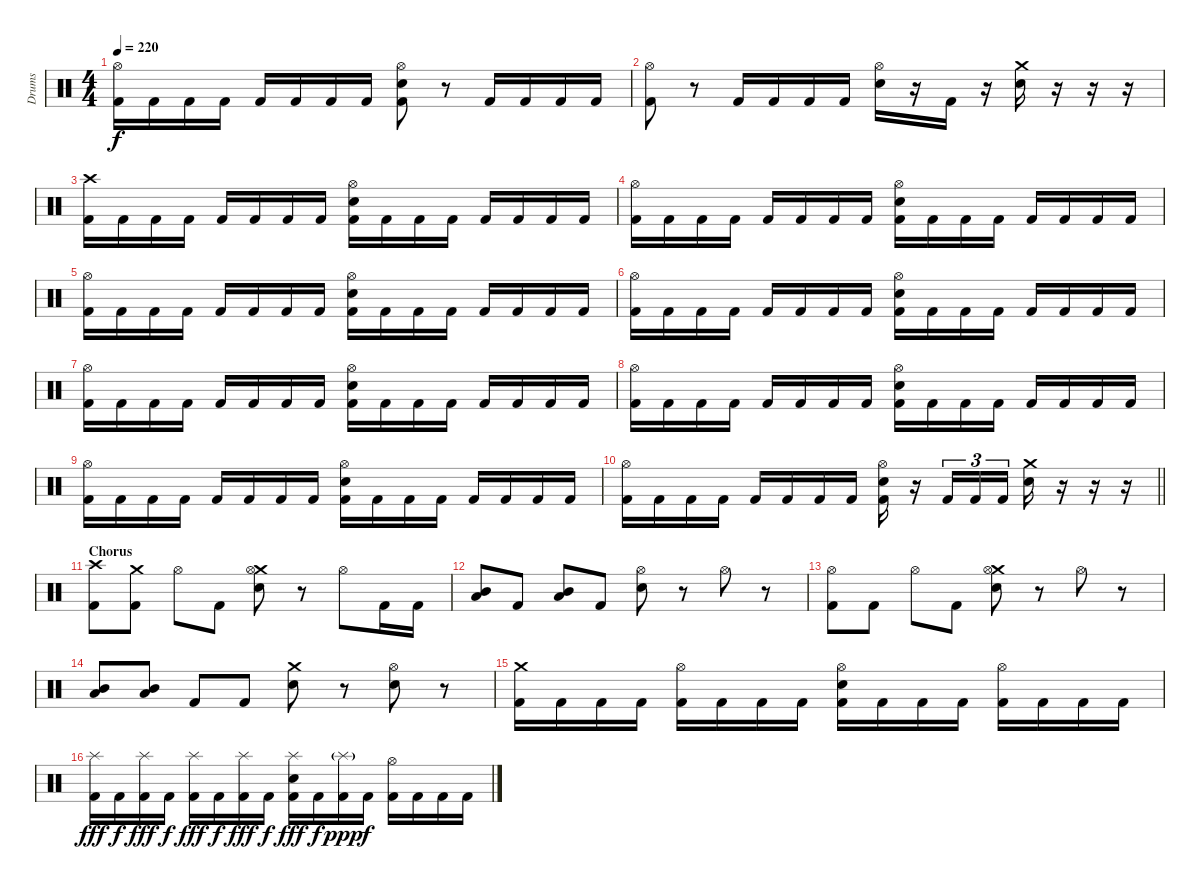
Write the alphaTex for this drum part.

\track ("Drums" "Drums") {instrument percussion}
\staff {score}
\articulation defaults
\ts (4 4)
\tempo 220
\clef neutral
\ks c
("Hi-Hat (open)" "Kick (hit) 2").16{dy f} "Kick (hit) 2".16 "Kick (hit) 2".16 "Kick (hit) 2".16 "Kick (hit) 2".16 "Kick (hit) 2".16 "Kick (hit) 2".16 "Kick (hit) 2".16 ("Hi-Hat (open)" "Electric Snare (hit)" "Kick (hit) 2").8 r.8 "Kick (hit) 2".16 "Kick (hit) 2".16 "Kick (hit) 2".16 "Kick (hit) 2".16 |
("Hi-Hat (open)" "Kick (hit) 2").8 r.8 "Kick (hit) 2".16 "Kick (hit) 2".16 "Kick (hit) 2".16 "Kick (hit) 2".16 ("Hi-Hat (open)" "Electric Snare (hit)").16 r.16 "Kick (hit) 2".16 r.16 ("Crash medium (hit)" "Electric Snare (hit)").16 r.16 r.16 r.16 |
("Crash high (hit)" "Kick (hit) 2").16 "Kick (hit) 2".16 "Kick (hit) 2".16 "Kick (hit) 2".16 "Kick (hit) 2".16 "Kick (hit) 2".16 "Kick (hit) 2".16 "Kick (hit) 2".16 ("Hi-Hat (open)" "Electric Snare (hit)" "Kick (hit) 2").16 "Kick (hit) 2".16 "Kick (hit) 2".16 "Kick (hit) 2".16 "Kick (hit) 2".16 "Kick (hit) 2".16 "Kick (hit) 2".16 "Kick (hit) 2".16 |
("Hi-Hat (open)" "Kick (hit) 2").16 "Kick (hit) 2".16 "Kick (hit) 2".16 "Kick (hit) 2".16 "Kick (hit) 2".16 "Kick (hit) 2".16 "Kick (hit) 2".16 "Kick (hit) 2".16 ("Hi-Hat (open)" "Electric Snare (hit)" "Kick (hit) 2").16 "Kick (hit) 2".16 "Kick (hit) 2".16 "Kick (hit) 2".16 "Kick (hit) 2".16 "Kick (hit) 2".16 "Kick (hit) 2".16 "Kick (hit) 2".16 |
("Hi-Hat (open)" "Kick (hit) 2").16 "Kick (hit) 2".16 "Kick (hit) 2".16 "Kick (hit) 2".16 "Kick (hit) 2".16 "Kick (hit) 2".16 "Kick (hit) 2".16 "Kick (hit) 2".16 ("Hi-Hat (open)" "Electric Snare (hit)" "Kick (hit) 2").16 "Kick (hit) 2".16 "Kick (hit) 2".16 "Kick (hit) 2".16 "Kick (hit) 2".16 "Kick (hit) 2".16 "Kick (hit) 2".16 "Kick (hit) 2".16 |
("Hi-Hat (open)" "Kick (hit) 2").16 "Kick (hit) 2".16 "Kick (hit) 2".16 "Kick (hit) 2".16 "Kick (hit) 2".16 "Kick (hit) 2".16 "Kick (hit) 2".16 "Kick (hit) 2".16 ("Hi-Hat (open)" "Electric Snare (hit)" "Kick (hit) 2").16 "Kick (hit) 2".16 "Kick (hit) 2".16 "Kick (hit) 2".16 "Kick (hit) 2".16 "Kick (hit) 2".16 "Kick (hit) 2".16 "Kick (hit) 2".16 |
("Hi-Hat (open)" "Kick (hit) 2").16 "Kick (hit) 2".16 "Kick (hit) 2".16 "Kick (hit) 2".16 "Kick (hit) 2".16 "Kick (hit) 2".16 "Kick (hit) 2".16 "Kick (hit) 2".16 ("Hi-Hat (open)" "Electric Snare (hit)" "Kick (hit) 2").16 "Kick (hit) 2".16 "Kick (hit) 2".16 "Kick (hit) 2".16 "Kick (hit) 2".16 "Kick (hit) 2".16 "Kick (hit) 2".16 "Kick (hit) 2".16 |
("Hi-Hat (open)" "Kick (hit) 2").16 "Kick (hit) 2".16 "Kick (hit) 2".16 "Kick (hit) 2".16 "Kick (hit) 2".16 "Kick (hit) 2".16 "Kick (hit) 2".16 "Kick (hit) 2".16 ("Hi-Hat (open)" "Electric Snare (hit)" "Kick (hit) 2").16 "Kick (hit) 2".16 "Kick (hit) 2".16 "Kick (hit) 2".16 "Kick (hit) 2".16 "Kick (hit) 2".16 "Kick (hit) 2".16 "Kick (hit) 2".16 |
("Hi-Hat (open)" "Kick (hit) 2").16 "Kick (hit) 2".16 "Kick (hit) 2".16 "Kick (hit) 2".16 "Kick (hit) 2".16 "Kick (hit) 2".16 "Kick (hit) 2".16 "Kick (hit) 2".16 ("Hi-Hat (open)" "Electric Snare (hit)" "Kick (hit) 2").16 "Kick (hit) 2".16 "Kick (hit) 2".16 "Kick (hit) 2".16 "Kick (hit) 2".16 "Kick (hit) 2".16 "Kick (hit) 2".16 "Kick (hit) 2".16 |
\barLineRight lightlight
("Hi-Hat (open)" "Kick (hit) 2").16 "Kick (hit) 2".16 "Kick (hit) 2".16 "Kick (hit) 2".16 "Kick (hit) 2".16 "Kick (hit) 2".16 "Kick (hit) 2".16 "Kick (hit) 2".16 ("Hi-Hat (open)" "Electric Snare (hit)" "Kick (hit) 2").16 r.16 "Kick (hit) 2".16{tu (3 2)} "Kick (hit) 2".16{tu (3 2)} "Kick (hit) 2".16{tu (3 2)} ("Crash medium (hit)" "Electric Snare (hit)").16 r.16 r.16 r.16 |
\section ("" "Chorus")
("Crash high (hit)" "Kick (hit) 2").8 ("Crash medium (hit)" "Kick (hit) 2").8 "Hi-Hat (open)".8 "Kick (hit) 2".8 ("Crash medium (hit)" "Hi-Hat (open)" "Electric Snare (hit)").8 r.8 "Hi-Hat (open)".8 "Kick (hit) 2".16 "Kick (hit) 2".16 |
("Mid Tom (hit)" "Low Tom (hit)").8 "Kick (hit) 2".8 ("Mid Tom (hit)" "Low Tom (hit)").8 "Kick (hit) 2".8 ("Hi-Hat (open)" "Electric Snare (hit)").8 r.8 "Hi-Hat (open)".8 r.8 |
("Hi-Hat (open)" "Kick (hit) 2").8 "Kick (hit) 2".8 "Hi-Hat (open)".8 "Kick (hit) 2".8 ("Crash medium (hit)" "Hi-Hat (open)" "Electric Snare (hit)").8 r.8 "Hi-Hat (open)".8 r.8 |
("Mid Tom (hit)" "Low Tom (hit)").8 ("Mid Tom (hit)" "Low Tom (hit)").8 "Kick (hit) 2".8 "Kick (hit) 2".8 ("Crash medium (hit)" "Electric Snare (hit)").8 r.8 ("Hi-Hat (open)" "Electric Snare (hit)").8 r.8 |
("Crash medium (hit)" "Kick (hit) 2").16 "Kick (hit) 2".16 "Kick (hit) 2".16 "Kick (hit) 2".16 ("Hi-Hat (open)" "Kick (hit) 2").16 "Kick (hit) 2".16 "Kick (hit) 2".16 "Kick (hit) 2".16 ("Hi-Hat (open)" "Electric Snare (hit)" "Kick (hit) 2").16 "Kick (hit) 2".16 "Kick (hit) 2".16 "Kick (hit) 2".16 ("Hi-Hat (open)" "Kick (hit) 2").16 "Kick (hit) 2".16 "Kick (hit) 2".16 "Kick (hit) 2".16 |
("Splash (hit)" "Kick (hit) 2").16{dy fff} "Kick (hit) 2".16{dy f} ("Splash (hit)" "Kick (hit) 2").16{dy fff} "Kick (hit) 2".16{dy f} ("Splash (hit)" "Kick (hit) 2").16{dy fff} "Kick (hit) 2".16{dy f} ("Splash (hit)" "Kick (hit) 2").16{dy fff} "Kick (hit) 2".16{dy f} ("Splash (hit)" "Electric Snare (hit)" "Kick (hit) 2").16{dy fff} "Kick (hit) 2".16{dy f} ("Splash (hit)"{g} "Kick (hit) 2").16{dy ppp} "Kick (hit) 2".16{dy f} ("Hi-Hat (open)" "Kick (hit) 2").16 "Kick (hit) 2".16 "Kick (hit) 2".16 "Kick (hit) 2".16
